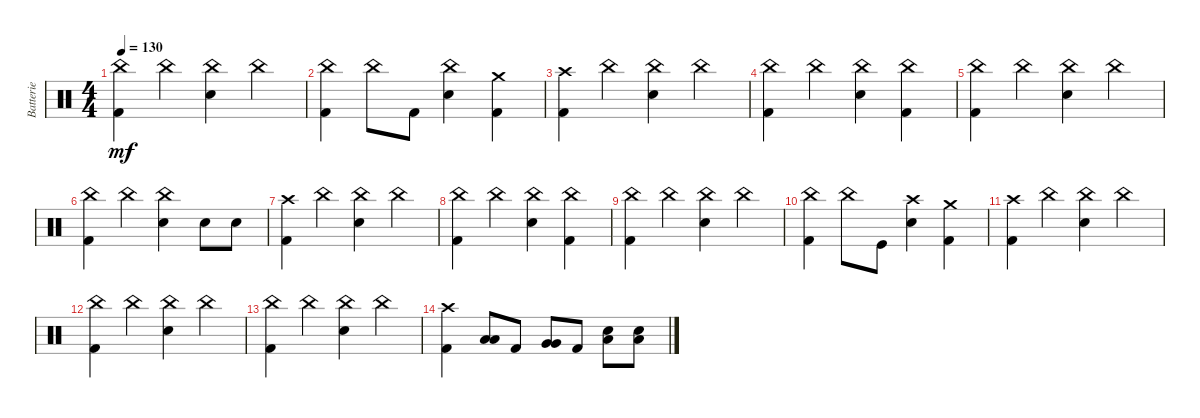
\track ("Batterie" "Batterie") {instrument percussion}
\staff {score}
\articulation defaults
\ts (4 4)
\tempo 130
\clef neutral
\ks c
("China (hit)" "Kick (hit) 2").4{dy mf} "China (hit)".4 ("China (hit)" "Electric Snare (hit)").4 "China (hit)".4 |
("China (hit)" "Kick (hit) 2").4 "China (hit)".8 "Kick (hit) 2".8 ("China (hit)" "Electric Snare (hit)").4 ("Crash medium (hit)" "Kick (hit) 2").4 |
("Crash high (hit)" "Kick (hit) 2").4 "China (hit)".4 ("China (hit)" "Electric Snare (hit)").4 "China (hit)".4 |
("China (hit)" "Kick (hit) 2").4 "China (hit)".4 ("China (hit)" "Electric Snare (hit)").4 ("China (hit)" "Kick (hit) 2").4 |
("China (hit)" "Kick (hit) 2").4 "China (hit)".4 ("China (hit)" "Electric Snare (hit)").4 "China (hit)".4 |
("China (hit)" "Kick (hit) 2").4 "China (hit)".4 ("China (hit)" "Electric Snare (hit)").4 "Electric Snare (hit)".8 "Electric Snare (hit)".8 |
("Crash high (hit)" "Kick (hit) 2").4 "China (hit)".4 ("China (hit)" "Electric Snare (hit)").4 "China (hit)".4 |
("China (hit)" "Kick (hit) 2").4 "China (hit)".4 ("China (hit)" "Electric Snare (hit)").4 ("China (hit)" "Kick (hit) 2").4 |
("China (hit)" "Kick (hit) 2").4 "China (hit)".4 ("China (hit)" "Electric Snare (hit)").4 "China (hit)".4 |
("China (hit)" "Kick (hit) 2").4 "China (hit)".8 "Kick (hit)".8 ("Crash high (hit)" "Electric Snare (hit)").4 ("Crash medium (hit)" "Kick (hit) 2").4 |
("Crash high (hit)" "Kick (hit) 2").4 "China (hit)".4 ("China (hit)" "Electric Snare (hit)").4 "China (hit)".4 |
("China (hit)" "Kick (hit) 2").4 "China (hit)".4 ("China (hit)" "Electric Snare (hit)").4 "China (hit)".4 |
("China (hit)" "Kick (hit) 2").4 "China (hit)".4 ("China (hit)" "Electric Snare (hit)").4 "China (hit)".4 |
("Crash high (hit)" "Kick (hit) 2").4 ("Low Tom (hit)" "Low Tom (hit)").8 "Kick (hit) 2".8 ("Very Low Tom (hit)" "Very Low Tom (hit)").8 "Kick (hit) 2".8 ("Electric Snare (hit)" "Low Floor Tom (hit)").8 ("Electric Snare (hit)" "Low Floor Tom (hit)").8
